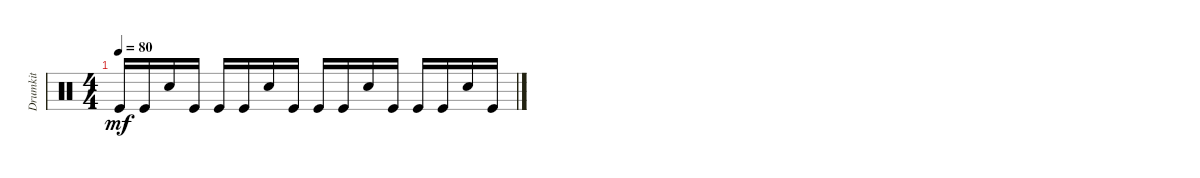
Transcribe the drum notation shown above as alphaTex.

\track ("Drumkit" "Drumkit") {instrument percussion}
\staff {score}
\articulation defaults
\ts (4 4)
\tempo 80
\clef neutral
\ks c "Kick (hit)".16{dy mf} "Kick (hit)".16 "Snare (hit) 2".16 "Kick (hit)".16 "Kick (hit)".16 "Kick (hit)".16 "Snare (hit) 2".16 "Kick (hit)".16 "Kick (hit)".16 "Kick (hit)".16 "Snare (hit) 2".16 "Kick (hit)".16 "Kick (hit)".16 "Kick (hit)".16 "Snare (hit) 2".16 "Kick (hit)".16
